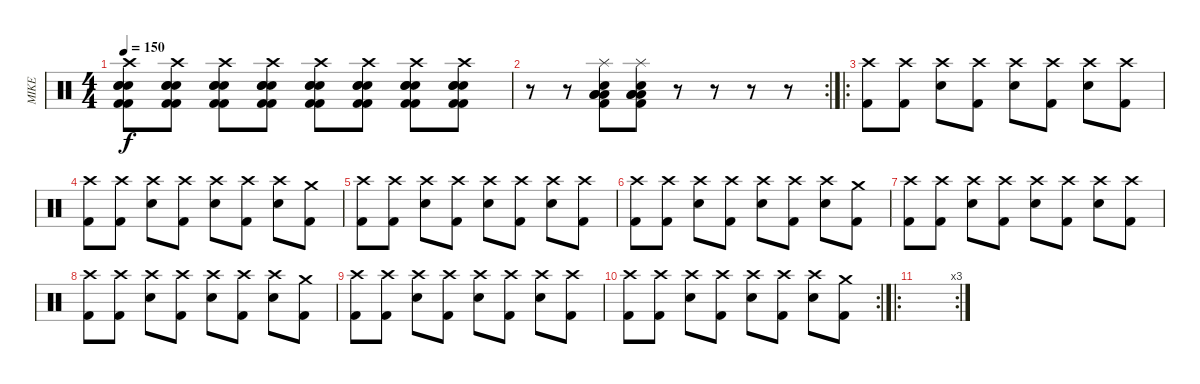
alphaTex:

\track ("MIKE" "MIKE") {instrument percussion}
\staff {score}
\articulation defaults
\ts (4 4)
\tempo 150
\clef neutral
\ks c
("Electric Snare (hit)" "Kick (hit) 2" "Electric Snare (hit)" "Kick (hit) 2" "Crash high (hit)" "Electric Snare (hit)").8{dy f} ("Electric Snare (hit)" "Kick (hit) 2" "Electric Snare (hit)" "Kick (hit) 2" "Crash high (hit)" "Electric Snare (hit)").8 ("Electric Snare (hit)" "Kick (hit) 2" "Electric Snare (hit)" "Kick (hit) 2" "Crash high (hit)" "Electric Snare (hit)").8 ("Electric Snare (hit)" "Kick (hit) 2" "Electric Snare (hit)" "Kick (hit) 2" "Crash high (hit)" "Electric Snare (hit)").8 ("Electric Snare (hit)" "Kick (hit) 2" "Electric Snare (hit)" "Kick (hit) 2" "Crash high (hit)" "Electric Snare (hit)").8 ("Electric Snare (hit)" "Kick (hit) 2" "Electric Snare (hit)" "Kick (hit) 2" "Crash high (hit)" "Electric Snare (hit)").8 ("Electric Snare (hit)" "Kick (hit) 2" "Electric Snare (hit)" "Kick (hit) 2" "Crash high (hit)" "Electric Snare (hit)").8 ("Electric Snare (hit)" "Kick (hit) 2" "Electric Snare (hit)" "Kick (hit) 2" "Crash high (hit)" "Electric Snare (hit)").8 |
\rc 2
r.8 r.8 ("Splash (hit)" "Low Floor Tom (hit)" "Low Floor Tom (hit)" "Kick (hit) 2" "Low Floor Tom (hit)" "Electric Snare (hit)").8 ("Splash (hit)" "Low Floor Tom (hit)" "Low Floor Tom (hit)" "Kick (hit) 2" "Low Floor Tom (hit)" "Electric Snare (hit)").8 r.8 r.8 r.8 r.8 |
\ro
("Crash high (hit)" "Kick (hit) 2").8 ("Crash high (hit)" "Kick (hit) 2").8 ("Crash high (hit)" "Snare (hit) 2").8 ("Crash high (hit)" "Kick (hit) 2").8 ("Crash high (hit)" "Snare (hit) 2").8 ("Crash high (hit)" "Kick (hit) 2").8 ("Crash high (hit)" "Snare (hit) 2").8 ("Crash high (hit)" "Kick (hit) 2").8 |
("Crash high (hit)" "Kick (hit) 2").8 ("Crash high (hit)" "Kick (hit) 2").8 ("Crash high (hit)" "Snare (hit) 2").8 ("Crash high (hit)" "Kick (hit) 2").8 ("Crash high (hit)" "Snare (hit) 2").8 ("Crash high (hit)" "Kick (hit) 2").8 ("Crash high (hit)" "Snare (hit) 2").8 ("Crash medium (hit)" "Kick (hit) 2").8 |
("Crash high (hit)" "Kick (hit) 2").8 ("Crash high (hit)" "Kick (hit) 2").8 ("Crash high (hit)" "Snare (hit) 2").8 ("Crash high (hit)" "Kick (hit) 2").8 ("Crash high (hit)" "Snare (hit) 2").8 ("Crash high (hit)" "Kick (hit) 2").8 ("Crash high (hit)" "Snare (hit) 2").8 ("Crash high (hit)" "Kick (hit) 2").8 |
("Crash high (hit)" "Kick (hit) 2").8 ("Crash high (hit)" "Kick (hit) 2").8 ("Crash high (hit)" "Snare (hit) 2").8 ("Crash high (hit)" "Kick (hit) 2").8 ("Crash high (hit)" "Snare (hit) 2").8 ("Crash high (hit)" "Kick (hit) 2").8 ("Crash high (hit)" "Snare (hit) 2").8 ("Crash medium (hit)" "Kick (hit) 2").8 |
("Crash high (hit)" "Kick (hit) 2").8 ("Crash high (hit)" "Kick (hit) 2").8 ("Crash high (hit)" "Snare (hit) 2").8 ("Crash high (hit)" "Kick (hit) 2").8 ("Crash high (hit)" "Snare (hit) 2").8 ("Crash high (hit)" "Kick (hit) 2").8 ("Crash high (hit)" "Snare (hit) 2").8 ("Crash high (hit)" "Kick (hit) 2").8 |
("Crash high (hit)" "Kick (hit) 2").8 ("Crash high (hit)" "Kick (hit) 2").8 ("Crash high (hit)" "Snare (hit) 2").8 ("Crash high (hit)" "Kick (hit) 2").8 ("Crash high (hit)" "Snare (hit) 2").8 ("Crash high (hit)" "Kick (hit) 2").8 ("Crash high (hit)" "Snare (hit) 2").8 ("Crash medium (hit)" "Kick (hit) 2").8 |
("Crash high (hit)" "Kick (hit) 2").8 ("Crash high (hit)" "Kick (hit) 2").8 ("Crash high (hit)" "Snare (hit) 2").8 ("Crash high (hit)" "Kick (hit) 2").8 ("Crash high (hit)" "Snare (hit) 2").8 ("Crash high (hit)" "Kick (hit) 2").8 ("Crash high (hit)" "Snare (hit) 2").8 ("Crash high (hit)" "Kick (hit) 2").8 |
\rc 2
("Crash high (hit)" "Kick (hit) 2").8 ("Crash high (hit)" "Kick (hit) 2").8 ("Crash high (hit)" "Snare (hit) 2").8 ("Crash high (hit)" "Kick (hit) 2").8 ("Crash high (hit)" "Snare (hit) 2").8 ("Crash high (hit)" "Kick (hit) 2").8 ("Crash high (hit)" "Snare (hit) 2").8 ("Crash medium (hit)" "Kick (hit) 2").8 |
\ro
\rc 3
